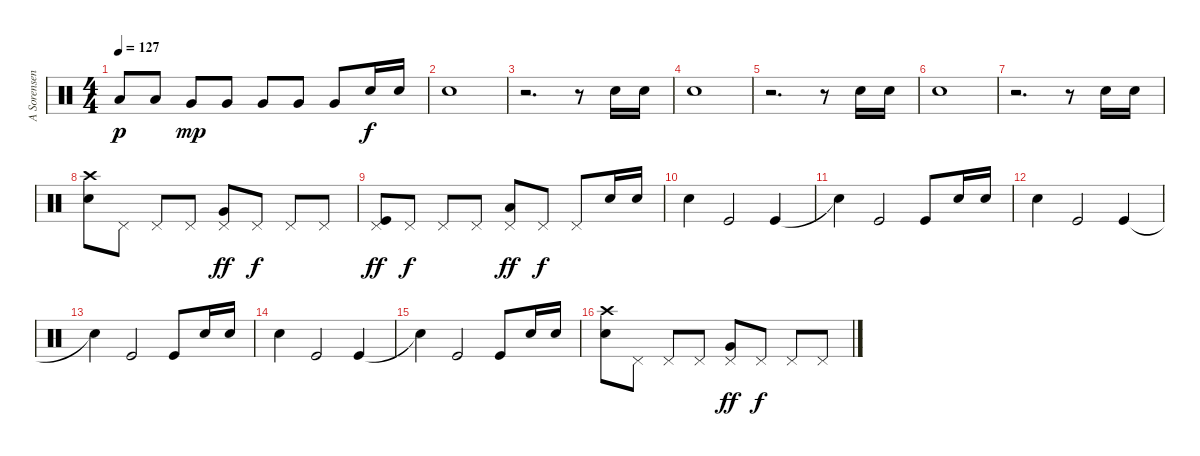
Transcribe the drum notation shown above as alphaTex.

\track ("A Sorensen" "A Sorensen") {instrument percussion}
\staff {score}
\articulation defaults
\ts (4 4)
\tempo 127
\clef neutral
\ks c "Low Floor Tom (hit)".8{dy p} "Low Floor Tom (hit)".8 "Very Low Tom (hit)".8{dy mp} "Very Low Tom (hit)".8 "Very Low Tom (hit)".8 "Very Low Tom (hit)".8 "Very Low Tom (hit)".8 "Snare (hit) 2".16{dy f} "Electric Snare (hit)".16
|
"Snare (hit) 2".1 |
r.2{d} r.8 "Snare (hit) 2".16 "Electric Snare (hit)".16 |
"Snare (hit) 2".1 |
r.2{d} r.8 "Snare (hit) 2".16 "Electric Snare (hit)".16 |
"Snare (hit) 2".1 |
r.2{d} r.8 "Snare (hit) 2".16 "Electric Snare (hit)".16 |
("Crash high (hit)" "Snare (hit) 2").8 "Pedal Hi-Hat (hit)".8 "Pedal Hi-Hat (hit)".8 "Pedal Hi-Hat (hit)".8 ("Very Low Tom (hit)" "Pedal Hi-Hat (hit)").8{dy ff} "Pedal Hi-Hat (hit)".8{dy f} "Pedal Hi-Hat (hit)".8 "Pedal Hi-Hat (hit)".8 |
("Pedal Hi-Hat (hit)" "Kick (hit)").8{dy ff} "Pedal Hi-Hat (hit)".8{dy f} "Pedal Hi-Hat (hit)".8 "Pedal Hi-Hat (hit)".8 ("Low Floor Tom (hit)" "Pedal Hi-Hat (hit)").8{dy ff} "Pedal Hi-Hat (hit)".8{dy f} "Pedal Hi-Hat (hit)".8 "Snare (hit) 2".16 "Electric Snare (hit)".16 |
"Snare (hit) 2".4 "Kick (hit)".2 "Kick (hit)".4 |
"Snare (hit)"{t}.4 "Kick (hit)".2 "Kick (hit)".8 "Snare (hit) 2".16 "Electric Snare (hit)".16 |
"Snare (hit) 2".4 "Kick (hit)".2 "Kick (hit)".4 |
"Snare (hit)"{t}.4 "Kick (hit)".2 "Kick (hit)".8 "Snare (hit) 2".16 "Electric Snare (hit)".16 |
"Snare (hit) 2".4 "Kick (hit)".2 "Kick (hit)".4 |
"Snare (hit)"{t}.4 "Kick (hit)".2 "Kick (hit)".8 "Snare (hit) 2".16 "Electric Snare (hit)".16 |
("Crash high (hit)" "Snare (hit) 2").8 "Pedal Hi-Hat (hit)".8 "Pedal Hi-Hat (hit)".8 "Pedal Hi-Hat (hit)".8 ("Very Low Tom (hit)" "Pedal Hi-Hat (hit)").8{dy ff} "Pedal Hi-Hat (hit)".8{dy f} "Pedal Hi-Hat (hit)".8 "Pedal Hi-Hat (hit)".8
